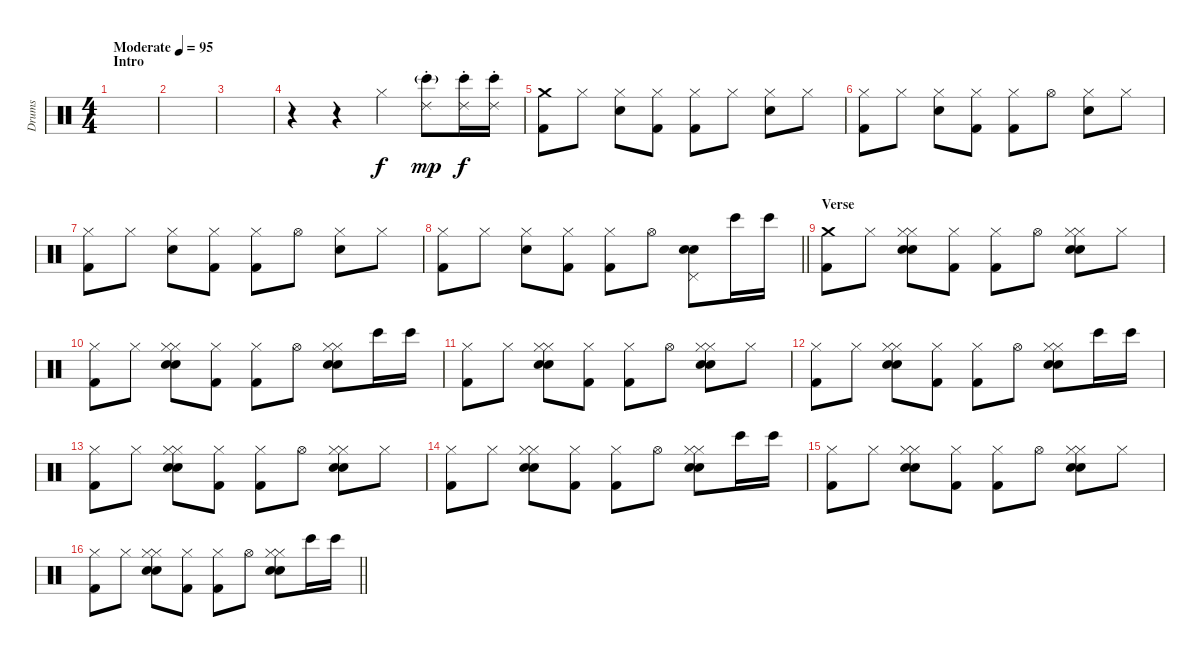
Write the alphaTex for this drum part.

\track ("Drums" "Drums") {instrument percussion}
\staff {score}
\articulation defaults
\ts (4 4)
\section ("" "Intro")
\tempo (95 "Moderate")
\clef neutral
\ks c
|
|
|
r.4 r.4 "Hi-Hat (closed)".4 ("Bongo High (hit)"{g} "Ride (choke) 2").8{dy mp} ("Bongo High (hit)" "Ride (choke) 2").16{dy f} ("Bongo High (hit)" "Ride (choke) 2").16 |
("Crash medium (hit)" "Kick (hit) 2").8 "Hi-Hat (closed)".8 ("Hi-Hat (closed)" "Electric Snare (hit)").8 ("Hi-Hat (closed)" "Kick (hit) 2").8 ("Hi-Hat (closed)" "Kick (hit) 2").8 "Hi-Hat (closed)".8 ("Hi-Hat (closed)" "Electric Snare (hit)").8 "Hi-Hat (closed)".8 |
("Hi-Hat (closed)" "Kick (hit) 2").8 "Hi-Hat (closed)".8 ("Hi-Hat (closed)" "Electric Snare (hit)").8 ("Hi-Hat (closed)" "Kick (hit) 2").8 ("Hi-Hat (closed)" "Kick (hit) 2").8 "Hi-Hat (open)".8 ("Hi-Hat (closed)" "Electric Snare (hit)").8 "Hi-Hat (closed)".8 |
("Hi-Hat (closed)" "Kick (hit) 2").8 "Hi-Hat (closed)".8 ("Hi-Hat (closed)" "Electric Snare (hit)").8 ("Hi-Hat (closed)" "Kick (hit) 2").8 ("Hi-Hat (closed)" "Kick (hit) 2").8 "Hi-Hat (open)".8 ("Hi-Hat (closed)" "Electric Snare (hit)").8 "Hi-Hat (closed)".8 |
\barLineRight lightlight
("Hi-Hat (closed)" "Kick (hit) 2").8 "Hi-Hat (closed)".8 ("Hi-Hat (closed)" "Electric Snare (hit)").8 ("Hi-Hat (closed)" "Kick (hit) 2").8 ("Hi-Hat (closed)" "Kick (hit) 2").8 "Hi-Hat (open)".8 ("Pedal Hi-Hat (hit)" "Hand Clap (hit)" "Electric Snare (hit)").8 "Bongo High (hit)".16 "Bongo High (hit)".16 |
\section ("" "Verse")
("Crash medium (hit)" "Kick (hit) 2").8 "Hi-Hat (closed)".8 ("Hi-Hat (closed)" "Hand Clap (hit)" "Hi-Hat (closed)" "Electric Snare (hit)").8 ("Hi-Hat (closed)" "Kick (hit) 2").8 ("Hi-Hat (closed)" "Kick (hit) 2").8 "Hi-Hat (open)".8 ("Hi-Hat (closed)" "Hand Clap (hit)" "Hi-Hat (closed)" "Electric Snare (hit)").8 "Hi-Hat (closed)".8 |
("Hi-Hat (closed)" "Kick (hit) 2").8 "Hi-Hat (closed)".8 ("Hi-Hat (closed)" "Hand Clap (hit)" "Hi-Hat (closed)" "Electric Snare (hit)").8 ("Hi-Hat (closed)" "Kick (hit) 2").8 ("Hi-Hat (closed)" "Kick (hit) 2").8 "Hi-Hat (open)".8 ("Hi-Hat (closed)" "Hand Clap (hit)" "Hi-Hat (closed)" "Electric Snare (hit)").8 "Bongo High (hit)".16 "Bongo High (hit)".16 |
("Hi-Hat (closed)" "Kick (hit) 2").8 "Hi-Hat (closed)".8 ("Hi-Hat (closed)" "Hand Clap (hit)" "Hi-Hat (closed)" "Electric Snare (hit)").8 ("Hi-Hat (closed)" "Kick (hit) 2").8 ("Hi-Hat (closed)" "Kick (hit) 2").8 "Hi-Hat (open)".8 ("Hi-Hat (closed)" "Hand Clap (hit)" "Hi-Hat (closed)" "Electric Snare (hit)").8 "Hi-Hat (closed)".8 |
("Hi-Hat (closed)" "Kick (hit) 2").8 "Hi-Hat (closed)".8 ("Hi-Hat (closed)" "Hand Clap (hit)" "Hi-Hat (closed)" "Electric Snare (hit)").8 ("Hi-Hat (closed)" "Kick (hit) 2").8 ("Hi-Hat (closed)" "Kick (hit) 2").8 "Hi-Hat (open)".8 ("Hi-Hat (closed)" "Hand Clap (hit)" "Hi-Hat (closed)" "Electric Snare (hit)").8 "Bongo High (hit)".16 "Bongo High (hit)".16 |
("Hi-Hat (closed)" "Kick (hit) 2").8 "Hi-Hat (closed)".8 ("Hi-Hat (closed)" "Hand Clap (hit)" "Hi-Hat (closed)" "Electric Snare (hit)").8 ("Hi-Hat (closed)" "Kick (hit) 2").8 ("Hi-Hat (closed)" "Kick (hit) 2").8 "Hi-Hat (open)".8 ("Hi-Hat (closed)" "Hand Clap (hit)" "Hi-Hat (closed)" "Electric Snare (hit)").8 "Hi-Hat (closed)".8 |
("Hi-Hat (closed)" "Kick (hit) 2").8 "Hi-Hat (closed)".8 ("Hi-Hat (closed)" "Hand Clap (hit)" "Hi-Hat (closed)" "Electric Snare (hit)").8 ("Hi-Hat (closed)" "Kick (hit) 2").8 ("Hi-Hat (closed)" "Kick (hit) 2").8 "Hi-Hat (open)".8 ("Hi-Hat (closed)" "Hand Clap (hit)" "Hi-Hat (closed)" "Electric Snare (hit)").8 "Bongo High (hit)".16 "Bongo High (hit)".16 |
("Hi-Hat (closed)" "Kick (hit) 2").8 "Hi-Hat (closed)".8 ("Hi-Hat (closed)" "Hand Clap (hit)" "Hi-Hat (closed)" "Electric Snare (hit)").8 ("Hi-Hat (closed)" "Kick (hit) 2").8 ("Hi-Hat (closed)" "Kick (hit) 2").8 "Hi-Hat (open)".8 ("Hi-Hat (closed)" "Hand Clap (hit)" "Hi-Hat (closed)" "Electric Snare (hit)").8 "Hi-Hat (closed)".8 |
\barLineRight lightlight
("Hi-Hat (closed)" "Kick (hit) 2").8 "Hi-Hat (closed)".8 ("Hi-Hat (closed)" "Hand Clap (hit)" "Hi-Hat (closed)" "Electric Snare (hit)").8 ("Hi-Hat (closed)" "Kick (hit) 2").8 ("Hi-Hat (closed)" "Kick (hit) 2").8 "Hi-Hat (open)".8 ("Hi-Hat (closed)" "Hand Clap (hit)" "Hi-Hat (closed)" "Electric Snare (hit)").8 "Bongo High (hit)".16 "Bongo High (hit)".16
